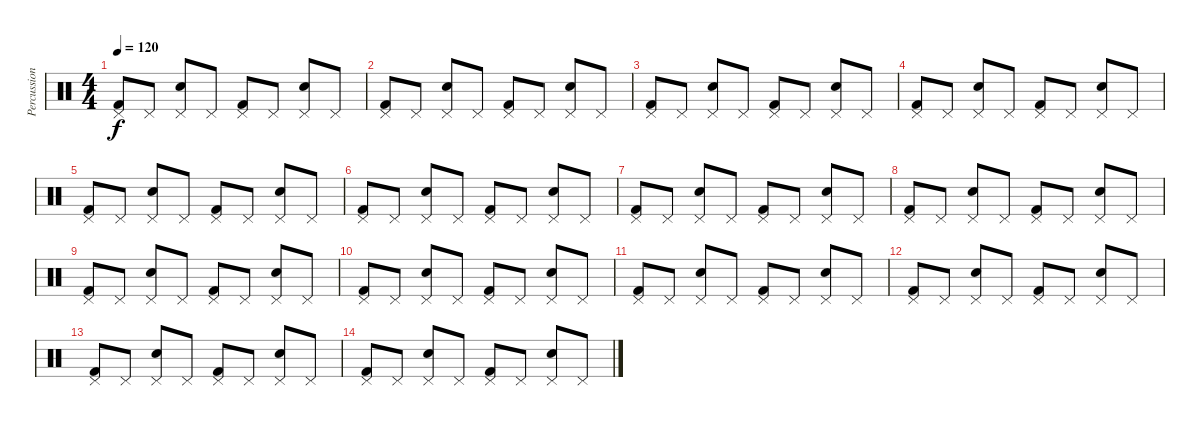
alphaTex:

\track ("Percussions" "Percussion") {instrument percussion}
\staff {score}
\articulation defaults
\ts (4 4)
\tempo 120
\clef neutral
\ks c
("Pedal Hi-Hat (hit)" "Kick (hit) 2").8{dy f} "Pedal Hi-Hat (hit)".8 ("Pedal Hi-Hat (hit)" "Snare (hit) 2").8 "Pedal Hi-Hat (hit)".8 ("Pedal Hi-Hat (hit)" "Kick (hit) 2").8 "Pedal Hi-Hat (hit)".8 ("Pedal Hi-Hat (hit)" "Snare (hit) 2").8 "Pedal Hi-Hat (hit)".8 |
("Pedal Hi-Hat (hit)" "Kick (hit) 2").8 "Pedal Hi-Hat (hit)".8 ("Pedal Hi-Hat (hit)" "Snare (hit) 2").8 "Pedal Hi-Hat (hit)".8 ("Pedal Hi-Hat (hit)" "Kick (hit) 2").8 "Pedal Hi-Hat (hit)".8 ("Pedal Hi-Hat (hit)" "Snare (hit) 2").8 "Pedal Hi-Hat (hit)".8 |
("Pedal Hi-Hat (hit)" "Kick (hit) 2").8 "Pedal Hi-Hat (hit)".8 ("Pedal Hi-Hat (hit)" "Snare (hit) 2").8 "Pedal Hi-Hat (hit)".8 ("Pedal Hi-Hat (hit)" "Kick (hit) 2").8 "Pedal Hi-Hat (hit)".8 ("Pedal Hi-Hat (hit)" "Snare (hit) 2").8 "Pedal Hi-Hat (hit)".8 |
("Pedal Hi-Hat (hit)" "Kick (hit) 2").8 "Pedal Hi-Hat (hit)".8 ("Pedal Hi-Hat (hit)" "Snare (hit) 2").8 "Pedal Hi-Hat (hit)".8 ("Pedal Hi-Hat (hit)" "Kick (hit) 2").8 "Pedal Hi-Hat (hit)".8 ("Pedal Hi-Hat (hit)" "Snare (hit) 2").8 "Pedal Hi-Hat (hit)".8 |
("Pedal Hi-Hat (hit)" "Kick (hit) 2").8 "Pedal Hi-Hat (hit)".8 ("Pedal Hi-Hat (hit)" "Snare (hit) 2").8 "Pedal Hi-Hat (hit)".8 ("Pedal Hi-Hat (hit)" "Kick (hit) 2").8 "Pedal Hi-Hat (hit)".8 ("Pedal Hi-Hat (hit)" "Snare (hit) 2").8 "Pedal Hi-Hat (hit)".8 |
("Pedal Hi-Hat (hit)" "Kick (hit) 2").8 "Pedal Hi-Hat (hit)".8 ("Pedal Hi-Hat (hit)" "Snare (hit) 2").8 "Pedal Hi-Hat (hit)".8 ("Pedal Hi-Hat (hit)" "Kick (hit) 2").8 "Pedal Hi-Hat (hit)".8 ("Pedal Hi-Hat (hit)" "Snare (hit) 2").8 "Pedal Hi-Hat (hit)".8 |
("Pedal Hi-Hat (hit)" "Kick (hit) 2").8 "Pedal Hi-Hat (hit)".8 ("Pedal Hi-Hat (hit)" "Snare (hit) 2").8 "Pedal Hi-Hat (hit)".8 ("Pedal Hi-Hat (hit)" "Kick (hit) 2").8 "Pedal Hi-Hat (hit)".8 ("Pedal Hi-Hat (hit)" "Snare (hit) 2").8 "Pedal Hi-Hat (hit)".8 |
("Pedal Hi-Hat (hit)" "Kick (hit) 2").8 "Pedal Hi-Hat (hit)".8 ("Pedal Hi-Hat (hit)" "Snare (hit) 2").8 "Pedal Hi-Hat (hit)".8 ("Pedal Hi-Hat (hit)" "Kick (hit) 2").8 "Pedal Hi-Hat (hit)".8 ("Pedal Hi-Hat (hit)" "Snare (hit) 2").8 "Pedal Hi-Hat (hit)".8 |
("Pedal Hi-Hat (hit)" "Kick (hit) 2").8 "Pedal Hi-Hat (hit)".8 ("Pedal Hi-Hat (hit)" "Snare (hit) 2").8 "Pedal Hi-Hat (hit)".8 ("Pedal Hi-Hat (hit)" "Kick (hit) 2").8 "Pedal Hi-Hat (hit)".8 ("Pedal Hi-Hat (hit)" "Snare (hit) 2").8 "Pedal Hi-Hat (hit)".8 |
("Pedal Hi-Hat (hit)" "Kick (hit) 2").8 "Pedal Hi-Hat (hit)".8 ("Pedal Hi-Hat (hit)" "Snare (hit) 2").8 "Pedal Hi-Hat (hit)".8 ("Pedal Hi-Hat (hit)" "Kick (hit) 2").8 "Pedal Hi-Hat (hit)".8 ("Pedal Hi-Hat (hit)" "Snare (hit) 2").8 "Pedal Hi-Hat (hit)".8 |
("Pedal Hi-Hat (hit)" "Kick (hit) 2").8 "Pedal Hi-Hat (hit)".8 ("Pedal Hi-Hat (hit)" "Snare (hit) 2").8 "Pedal Hi-Hat (hit)".8 ("Pedal Hi-Hat (hit)" "Kick (hit) 2").8 "Pedal Hi-Hat (hit)".8 ("Pedal Hi-Hat (hit)" "Snare (hit) 2").8 "Pedal Hi-Hat (hit)".8 |
("Pedal Hi-Hat (hit)" "Kick (hit) 2").8 "Pedal Hi-Hat (hit)".8 ("Pedal Hi-Hat (hit)" "Snare (hit) 2").8 "Pedal Hi-Hat (hit)".8 ("Pedal Hi-Hat (hit)" "Kick (hit) 2").8 "Pedal Hi-Hat (hit)".8 ("Pedal Hi-Hat (hit)" "Snare (hit) 2").8 "Pedal Hi-Hat (hit)".8 |
("Pedal Hi-Hat (hit)" "Kick (hit) 2").8 "Pedal Hi-Hat (hit)".8 ("Pedal Hi-Hat (hit)" "Snare (hit) 2").8 "Pedal Hi-Hat (hit)".8 ("Pedal Hi-Hat (hit)" "Kick (hit) 2").8 "Pedal Hi-Hat (hit)".8 ("Pedal Hi-Hat (hit)" "Snare (hit) 2").8 "Pedal Hi-Hat (hit)".8 |
("Pedal Hi-Hat (hit)" "Kick (hit) 2").8 "Pedal Hi-Hat (hit)".8 ("Pedal Hi-Hat (hit)" "Snare (hit) 2").8 "Pedal Hi-Hat (hit)".8 ("Pedal Hi-Hat (hit)" "Kick (hit) 2").8 "Pedal Hi-Hat (hit)".8 ("Pedal Hi-Hat (hit)" "Snare (hit) 2").8 "Pedal Hi-Hat (hit)".8
